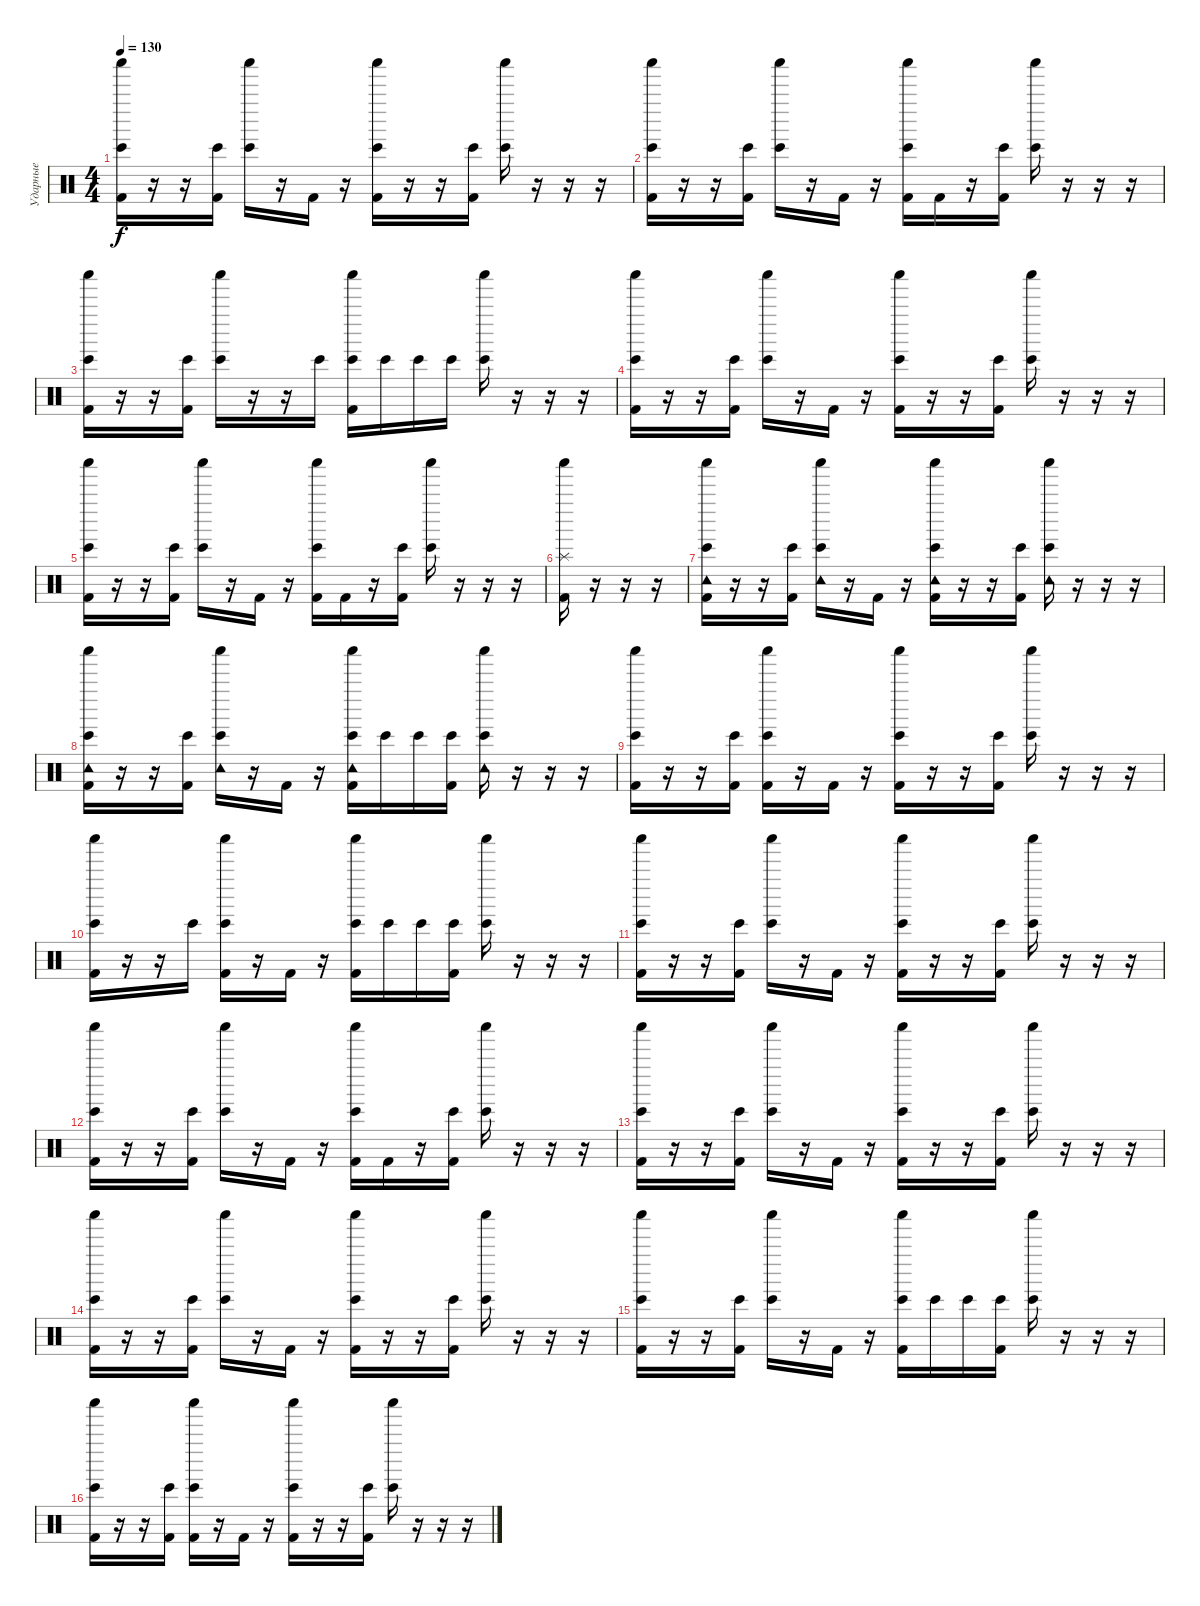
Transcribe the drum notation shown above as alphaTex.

\track ("Ударные" "Ударные") {instrument percussion}
\staff {score}
\articulation defaults
\ts (4 4)
\tempo 130
\clef neutral
\ks c
("Bongo High (hit)" "Shaker (hit)" "Kick (hit) 2").16{dy f} r.16 r.16{volume 16} ("Bongo High (hit)" "Kick (hit) 2").16 ("Bongo High (hit)" "Shaker (hit)").16 r.16 "Kick (hit) 2".16 r.16 ("Bongo High (hit)" "Shaker (hit)" "Kick (hit) 2").16 r.16 r.16 ("Bongo High (hit)" "Kick (hit) 2").16 ("Bongo High (hit)" "Shaker (hit)").16 r.16 r.16 r.16 |
("Bongo High (hit)" "Shaker (hit)" "Kick (hit) 2").16 r.16 r.16 ("Bongo High (hit)" "Kick (hit) 2").16 ("Bongo High (hit)" "Shaker (hit)").16 r.16 "Kick (hit) 2".16 r.16 ("Bongo High (hit)" "Shaker (hit)" "Kick (hit) 2").16 "Kick (hit) 2".16 r.16 ("Bongo High (hit)" "Kick (hit) 2").16 ("Bongo High (hit)" "Shaker (hit)").16 r.16 r.16 r.16 |
("Bongo High (hit)" "Shaker (hit)" "Kick (hit) 2").16 r.16 r.16{volume 16} ("Bongo High (hit)" "Kick (hit) 2").16 ("Bongo High (hit)" "Shaker (hit)").16 r.16 r.16 "Bongo High (hit)".16 ("Bongo High (hit)" "Shaker (hit)" "Kick (hit) 2").16 "Bongo High (hit)".16 "Bongo High (hit)".16 "Bongo High (hit)".16 ("Bongo High (hit)" "Shaker (hit)").16 r.16 r.16 r.16 |
("Bongo High (hit)" "Shaker (hit)" "Kick (hit) 2").16 r.16 r.16{volume 16} ("Bongo High (hit)" "Kick (hit) 2").16 ("Bongo High (hit)" "Shaker (hit)").16 r.16 "Kick (hit) 2".16 r.16 ("Bongo High (hit)" "Shaker (hit)" "Kick (hit) 2").16 r.16 r.16 ("Bongo High (hit)" "Kick (hit) 2").16 ("Bongo High (hit)" "Shaker (hit)").16 r.16 r.16 r.16 |
("Bongo High (hit)" "Shaker (hit)" "Kick (hit) 2").16 r.16 r.16 ("Bongo High (hit)" "Kick (hit) 2").16 ("Bongo High (hit)" "Shaker (hit)").16 r.16 "Kick (hit) 2".16 r.16 ("Bongo High (hit)" "Shaker (hit)" "Kick (hit) 2").16 "Kick (hit) 2".16 r.16 ("Bongo High (hit)" "Kick (hit) 2").16 ("Bongo High (hit)" "Shaker (hit)").16 r.16 r.16 r.16 |
("Splash (hit)" "Shaker (hit)" "Kick (hit) 2").16 r.16 r.16{volume 16} r.16 |
("Tambourine (hit)" "Bongo High (hit)" "Shaker (hit)" "Kick (hit) 2").16 r.16 r.16 ("Bongo High (hit)" "Kick (hit) 2").16 ("Tambourine (hit)" "Bongo High (hit)" "Shaker (hit)").16 r.16 "Kick (hit) 2".16 r.16 ("Tambourine (hit)" "Bongo High (hit)" "Shaker (hit)" "Kick (hit) 2").16 r.16 r.16 ("Bongo High (hit)" "Kick (hit) 2").16 ("Tambourine (hit)" "Bongo High (hit)" "Shaker (hit)").16 r.16 r.16 r.16 |
("Tambourine (hit)" "Bongo High (hit)" "Shaker (hit)" "Kick (hit) 2").16 r.16 r.16 ("Bongo High (hit)" "Kick (hit) 2").16 ("Tambourine (hit)" "Bongo High (hit)" "Shaker (hit)").16 r.16 "Kick (hit) 2".16 r.16 ("Tambourine (hit)" "Bongo High (hit)" "Shaker (hit)" "Kick (hit) 2").16 "Bongo High (hit)".16 "Bongo High (hit)".16 ("Bongo High (hit)" "Kick (hit) 2").16 ("Tambourine (hit)" "Bongo High (hit)" "Shaker (hit)").16 r.16 r.16 r.16 |
("Bongo High (hit)" "Shaker (hit)" "Kick (hit) 2").16 r.16 r.16 ("Bongo High (hit)" "Kick (hit) 2").16 ("Bongo High (hit)" "Shaker (hit)" "Kick (hit) 2").16 r.16 "Kick (hit) 2".16 r.16 ("Bongo High (hit)" "Shaker (hit)" "Kick (hit) 2").16 r.16 r.16 ("Bongo High (hit)" "Kick (hit) 2").16 ("Bongo High (hit)" "Shaker (hit)").16 r.16 r.16 r.16 |
("Bongo High (hit)" "Shaker (hit)" "Kick (hit) 2").16 r.16 r.16 "Bongo High (hit)".16 ("Bongo High (hit)" "Shaker (hit)" "Kick (hit) 2").16 r.16 "Kick (hit) 2".16 r.16 ("Bongo High (hit)" "Shaker (hit)" "Kick (hit) 2").16 "Bongo High (hit)".16 "Bongo High (hit)".16 ("Bongo High (hit)" "Kick (hit) 2").16 ("Bongo High (hit)" "Shaker (hit)").16 r.16 r.16 r.16 |
("Bongo High (hit)" "Shaker (hit)" "Kick (hit) 2").16 r.16 r.16{volume 16} ("Bongo High (hit)" "Kick (hit) 2").16 ("Bongo High (hit)" "Shaker (hit)").16 r.16 "Kick (hit) 2".16 r.16 ("Bongo High (hit)" "Shaker (hit)" "Kick (hit) 2").16 r.16 r.16 ("Bongo High (hit)" "Kick (hit) 2").16 ("Bongo High (hit)" "Shaker (hit)").16 r.16 r.16 r.16 |
("Bongo High (hit)" "Shaker (hit)" "Kick (hit) 2").16 r.16 r.16 ("Bongo High (hit)" "Kick (hit) 2").16 ("Bongo High (hit)" "Shaker (hit)").16 r.16 "Kick (hit) 2".16 r.16 ("Bongo High (hit)" "Shaker (hit)" "Kick (hit) 2").16 "Kick (hit) 2".16 r.16 ("Bongo High (hit)" "Kick (hit) 2").16 ("Bongo High (hit)" "Shaker (hit)").16 r.16 r.16 r.16 |
("Bongo High (hit)" "Shaker (hit)" "Kick (hit) 2").16 r.16 r.16{volume 16} ("Bongo High (hit)" "Kick (hit) 2").16 ("Bongo High (hit)" "Shaker (hit)").16 r.16 "Kick (hit) 2".16 r.16 ("Bongo High (hit)" "Shaker (hit)" "Kick (hit) 2").16 r.16 r.16 ("Bongo High (hit)" "Kick (hit) 2").16 ("Bongo High (hit)" "Shaker (hit)").16 r.16 r.16 r.16 |
("Bongo High (hit)" "Shaker (hit)" "Kick (hit) 2").16 r.16 r.16 ("Bongo High (hit)" "Kick (hit) 2").16 ("Bongo High (hit)" "Shaker (hit)").16 r.16 "Kick (hit) 2".16 r.16 ("Bongo High (hit)" "Shaker (hit)" "Kick (hit) 2").16 r.16 r.16 ("Bongo High (hit)" "Kick (hit) 2").16 ("Bongo High (hit)" "Shaker (hit)").16 r.16 r.16 r.16 |
("Bongo High (hit)" "Shaker (hit)" "Kick (hit) 2").16 r.16 r.16 ("Bongo High (hit)" "Kick (hit) 2").16 ("Bongo High (hit)" "Shaker (hit)").16 r.16 "Kick (hit) 2".16 r.16 ("Bongo High (hit)" "Shaker (hit)" "Kick (hit) 2").16 "Bongo High (hit)".16 "Bongo High (hit)".16 ("Bongo High (hit)" "Kick (hit) 2").16 ("Bongo High (hit)" "Shaker (hit)").16 r.16 r.16 r.16 |
("Bongo High (hit)" "Shaker (hit)" "Kick (hit) 2").16 r.16 r.16 ("Bongo High (hit)" "Kick (hit) 2").16 ("Bongo High (hit)" "Shaker (hit)" "Kick (hit) 2").16 r.16 "Kick (hit) 2".16 r.16 ("Bongo High (hit)" "Shaker (hit)" "Kick (hit) 2").16 r.16 r.16 ("Bongo High (hit)" "Kick (hit) 2").16 ("Bongo High (hit)" "Shaker (hit)").16 r.16 r.16 r.16
